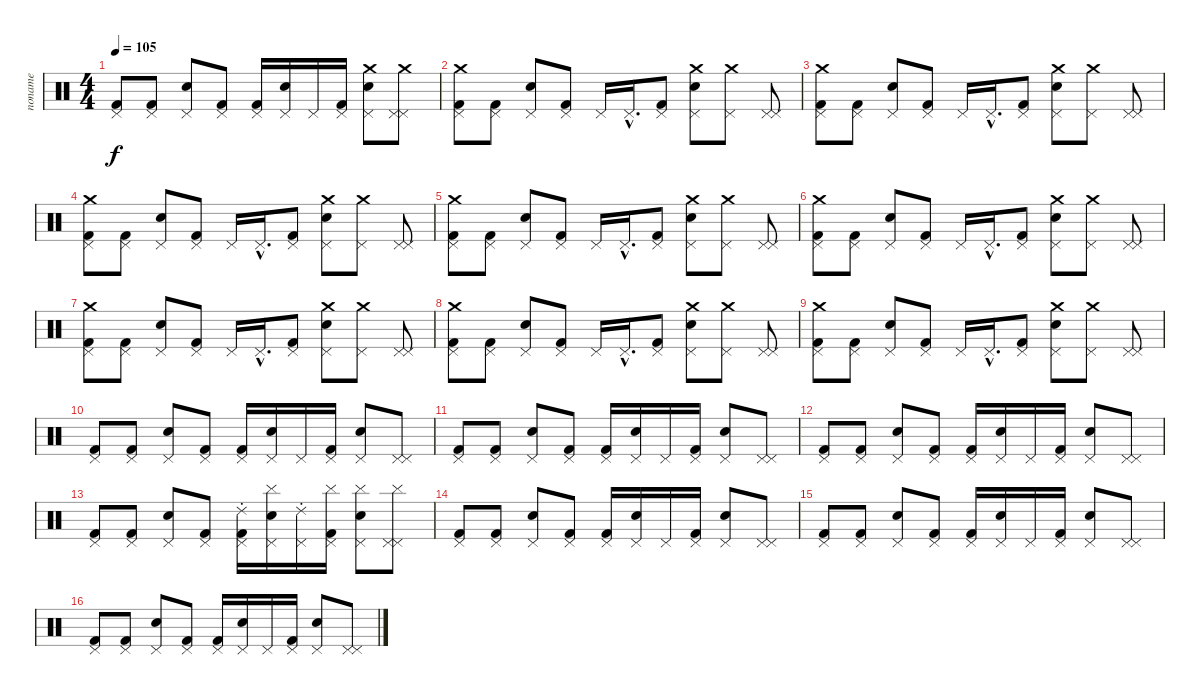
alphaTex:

\track ("noname" "noname") {instrument percussion}
\staff {score}
\articulation defaults
\ts (4 4)
\tempo 105
\clef neutral
\ks c
("Pedal Hi-Hat (hit)" "Kick (hit) 2").8{dy f} ("Pedal Hi-Hat (hit)" "Kick (hit) 2").8 ("Pedal Hi-Hat (hit)" "Snare (hit) 2").8 ("Pedal Hi-Hat (hit)" "Kick (hit) 2").8 ("Pedal Hi-Hat (hit)" "Kick (hit) 2").16 ("Pedal Hi-Hat (hit)" "Snare (hit) 2").16 "Pedal Hi-Hat (hit)".16 ("Pedal Hi-Hat (hit)" "Kick (hit) 2").16 ("Pedal Hi-Hat (hit)" "Crash medium (hit)" "Snare (hit) 2").8 ("Pedal Hi-Hat (hit)" "Pedal Hi-Hat (hit)" "Crash medium (hit)").8 |
("Pedal Hi-Hat (hit)" "Crash medium (hit)" "Kick (hit) 2").8 ("Pedal Hi-Hat (hit)" "Kick (hit) 2").8 ("Pedal Hi-Hat (hit)" "Snare (hit) 2").8 ("Pedal Hi-Hat (hit)" "Kick (hit) 2").8 "Pedal Hi-Hat (hit)".16 "Pedal Hi-Hat (hit)"{hac}.16{d} ("Pedal Hi-Hat (hit)" "Kick (hit) 2").8 ("Pedal Hi-Hat (hit)" "Crash medium (hit)" "Snare (hit) 2").8 ("Pedal Hi-Hat (hit)" "Crash medium (hit)").8 ("Pedal Hi-Hat (hit)" "Pedal Hi-Hat (hit)").8 |
("Pedal Hi-Hat (hit)" "Crash medium (hit)" "Kick (hit) 2").8 ("Pedal Hi-Hat (hit)" "Kick (hit) 2").8 ("Pedal Hi-Hat (hit)" "Snare (hit) 2").8 ("Pedal Hi-Hat (hit)" "Kick (hit) 2").8 "Pedal Hi-Hat (hit)".16 "Pedal Hi-Hat (hit)"{hac}.16{d} ("Pedal Hi-Hat (hit)" "Kick (hit) 2").8 ("Pedal Hi-Hat (hit)" "Crash medium (hit)" "Snare (hit) 2").8 ("Pedal Hi-Hat (hit)" "Crash medium (hit)").8 ("Pedal Hi-Hat (hit)" "Pedal Hi-Hat (hit)").8 |
("Pedal Hi-Hat (hit)" "Crash medium (hit)" "Kick (hit) 2").8 ("Pedal Hi-Hat (hit)" "Kick (hit) 2").8 ("Pedal Hi-Hat (hit)" "Snare (hit) 2").8 ("Pedal Hi-Hat (hit)" "Kick (hit) 2").8 "Pedal Hi-Hat (hit)".16 "Pedal Hi-Hat (hit)"{hac}.16{d} ("Pedal Hi-Hat (hit)" "Kick (hit) 2").8 ("Pedal Hi-Hat (hit)" "Crash medium (hit)" "Snare (hit) 2").8 ("Pedal Hi-Hat (hit)" "Crash medium (hit)").8 ("Pedal Hi-Hat (hit)" "Pedal Hi-Hat (hit)").8 |
("Pedal Hi-Hat (hit)" "Crash medium (hit)" "Kick (hit) 2").8 ("Pedal Hi-Hat (hit)" "Kick (hit) 2").8 ("Pedal Hi-Hat (hit)" "Snare (hit) 2").8 ("Pedal Hi-Hat (hit)" "Kick (hit) 2").8 "Pedal Hi-Hat (hit)".16 "Pedal Hi-Hat (hit)"{hac}.16{d} ("Pedal Hi-Hat (hit)" "Kick (hit) 2").8 ("Pedal Hi-Hat (hit)" "Crash medium (hit)" "Snare (hit) 2").8 ("Pedal Hi-Hat (hit)" "Crash medium (hit)").8 ("Pedal Hi-Hat (hit)" "Pedal Hi-Hat (hit)").8 |
("Pedal Hi-Hat (hit)" "Crash medium (hit)" "Kick (hit) 2").8 ("Pedal Hi-Hat (hit)" "Kick (hit) 2").8 ("Pedal Hi-Hat (hit)" "Snare (hit) 2").8 ("Pedal Hi-Hat (hit)" "Kick (hit) 2").8 "Pedal Hi-Hat (hit)".16 "Pedal Hi-Hat (hit)"{hac}.16{d} ("Pedal Hi-Hat (hit)" "Kick (hit) 2").8 ("Pedal Hi-Hat (hit)" "Crash medium (hit)" "Snare (hit) 2").8 ("Pedal Hi-Hat (hit)" "Crash medium (hit)").8 ("Pedal Hi-Hat (hit)" "Pedal Hi-Hat (hit)").8 |
("Pedal Hi-Hat (hit)" "Crash medium (hit)" "Kick (hit) 2").8 ("Pedal Hi-Hat (hit)" "Kick (hit) 2").8 ("Pedal Hi-Hat (hit)" "Snare (hit) 2").8 ("Pedal Hi-Hat (hit)" "Kick (hit) 2").8 "Pedal Hi-Hat (hit)".16 "Pedal Hi-Hat (hit)"{hac}.16{d} ("Pedal Hi-Hat (hit)" "Kick (hit) 2").8 ("Pedal Hi-Hat (hit)" "Crash medium (hit)" "Snare (hit) 2").8 ("Pedal Hi-Hat (hit)" "Crash medium (hit)").8 ("Pedal Hi-Hat (hit)" "Pedal Hi-Hat (hit)").8 |
("Pedal Hi-Hat (hit)" "Crash medium (hit)" "Kick (hit) 2").8 ("Pedal Hi-Hat (hit)" "Kick (hit) 2").8 ("Pedal Hi-Hat (hit)" "Snare (hit) 2").8 ("Pedal Hi-Hat (hit)" "Kick (hit) 2").8 "Pedal Hi-Hat (hit)".16 "Pedal Hi-Hat (hit)"{hac}.16{d} ("Pedal Hi-Hat (hit)" "Kick (hit) 2").8 ("Pedal Hi-Hat (hit)" "Crash medium (hit)" "Snare (hit) 2").8 ("Pedal Hi-Hat (hit)" "Crash medium (hit)").8 ("Pedal Hi-Hat (hit)" "Pedal Hi-Hat (hit)").8 |
("Pedal Hi-Hat (hit)" "Crash medium (hit)" "Kick (hit) 2").8 ("Pedal Hi-Hat (hit)" "Kick (hit) 2").8 ("Pedal Hi-Hat (hit)" "Snare (hit) 2").8 ("Pedal Hi-Hat (hit)" "Kick (hit) 2").8 "Pedal Hi-Hat (hit)".16 "Pedal Hi-Hat (hit)"{hac}.16{d} ("Pedal Hi-Hat (hit)" "Kick (hit) 2").8 ("Pedal Hi-Hat (hit)" "Crash medium (hit)" "Snare (hit) 2").8 ("Pedal Hi-Hat (hit)" "Crash medium (hit)").8 ("Pedal Hi-Hat (hit)" "Pedal Hi-Hat (hit)").8 |
("Pedal Hi-Hat (hit)" "Kick (hit) 2").8 ("Pedal Hi-Hat (hit)" "Kick (hit) 2").8 ("Pedal Hi-Hat (hit)" "Snare (hit) 2").8 ("Pedal Hi-Hat (hit)" "Kick (hit) 2").8 ("Pedal Hi-Hat (hit)" "Kick (hit) 2").16 ("Pedal Hi-Hat (hit)" "Snare (hit) 2").16 "Pedal Hi-Hat (hit)".16 ("Pedal Hi-Hat (hit)" "Kick (hit) 2").16 ("Pedal Hi-Hat (hit)" "Snare (hit) 2").8 ("Pedal Hi-Hat (hit)" "Pedal Hi-Hat (hit)").8 |
("Pedal Hi-Hat (hit)" "Kick (hit) 2").8 ("Pedal Hi-Hat (hit)" "Kick (hit) 2").8 ("Pedal Hi-Hat (hit)" "Snare (hit) 2").8 ("Pedal Hi-Hat (hit)" "Kick (hit) 2").8 ("Pedal Hi-Hat (hit)" "Kick (hit) 2").16 ("Pedal Hi-Hat (hit)" "Snare (hit) 2").16 "Pedal Hi-Hat (hit)".16 ("Pedal Hi-Hat (hit)" "Kick (hit) 2").16 ("Pedal Hi-Hat (hit)" "Snare (hit) 2").8 ("Pedal Hi-Hat (hit)" "Pedal Hi-Hat (hit)").8 |
("Pedal Hi-Hat (hit)" "Kick (hit) 2").8 ("Pedal Hi-Hat (hit)" "Kick (hit) 2").8 ("Pedal Hi-Hat (hit)" "Snare (hit) 2").8 ("Pedal Hi-Hat (hit)" "Kick (hit) 2").8 ("Pedal Hi-Hat (hit)" "Kick (hit) 2").16 ("Pedal Hi-Hat (hit)" "Snare (hit) 2").16 "Pedal Hi-Hat (hit)".16 ("Pedal Hi-Hat (hit)" "Kick (hit) 2").16 ("Pedal Hi-Hat (hit)" "Snare (hit) 2").8 ("Pedal Hi-Hat (hit)" "Pedal Hi-Hat (hit)").8 |
("Pedal Hi-Hat (hit)" "Kick (hit) 2").8 ("Pedal Hi-Hat (hit)" "Kick (hit) 2").8 ("Pedal Hi-Hat (hit)" "Snare (hit) 2").8 ("Pedal Hi-Hat (hit)" "Kick (hit) 2").8 ("Pedal Hi-Hat (hit)" "Ride (choke) 2" "Kick (hit) 2").16 ("Pedal Hi-Hat (hit)" "Cymbal (hit)" "Snare (hit) 2").16 ("Pedal Hi-Hat (hit)" "Ride (choke) 2").16 ("Pedal Hi-Hat (hit)" "Cymbal (hit)" "Kick (hit) 2").16 ("Pedal Hi-Hat (hit)" "Cymbal (hit)" "Snare (hit) 2").8 ("Pedal Hi-Hat (hit)" "Pedal Hi-Hat (hit)" "Cymbal (hit)").8 |
("Pedal Hi-Hat (hit)" "Kick (hit) 2").8 ("Pedal Hi-Hat (hit)" "Kick (hit) 2").8 ("Pedal Hi-Hat (hit)" "Snare (hit) 2").8 ("Pedal Hi-Hat (hit)" "Kick (hit) 2").8 ("Pedal Hi-Hat (hit)" "Kick (hit) 2").16 ("Pedal Hi-Hat (hit)" "Snare (hit) 2").16 "Pedal Hi-Hat (hit)".16 ("Pedal Hi-Hat (hit)" "Kick (hit) 2").16 ("Pedal Hi-Hat (hit)" "Snare (hit) 2").8 ("Pedal Hi-Hat (hit)" "Pedal Hi-Hat (hit)").8 |
("Pedal Hi-Hat (hit)" "Kick (hit) 2").8 ("Pedal Hi-Hat (hit)" "Kick (hit) 2").8 ("Pedal Hi-Hat (hit)" "Snare (hit) 2").8 ("Pedal Hi-Hat (hit)" "Kick (hit) 2").8 ("Pedal Hi-Hat (hit)" "Kick (hit) 2").16 ("Pedal Hi-Hat (hit)" "Snare (hit) 2").16 "Pedal Hi-Hat (hit)".16 ("Pedal Hi-Hat (hit)" "Kick (hit) 2").16 ("Pedal Hi-Hat (hit)" "Snare (hit) 2").8 ("Pedal Hi-Hat (hit)" "Pedal Hi-Hat (hit)").8 |
("Pedal Hi-Hat (hit)" "Kick (hit) 2").8 ("Pedal Hi-Hat (hit)" "Kick (hit) 2").8 ("Pedal Hi-Hat (hit)" "Snare (hit) 2").8 ("Pedal Hi-Hat (hit)" "Kick (hit) 2").8 ("Pedal Hi-Hat (hit)" "Kick (hit) 2").16 ("Pedal Hi-Hat (hit)" "Snare (hit) 2").16 "Pedal Hi-Hat (hit)".16 ("Pedal Hi-Hat (hit)" "Kick (hit) 2").16 ("Pedal Hi-Hat (hit)" "Snare (hit) 2").8 ("Pedal Hi-Hat (hit)" "Pedal Hi-Hat (hit)").8
